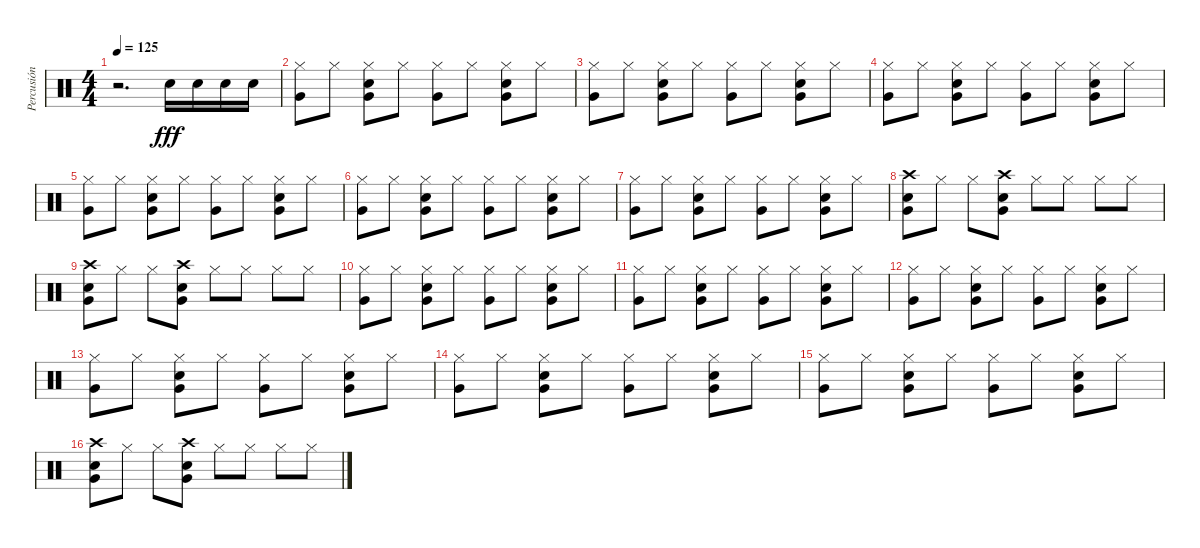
\track ("Percusión" "Percusión") {instrument percussion}
\staff {score}
\articulation defaults
\ts (4 4)
\tempo 125
\clef neutral
\ks c
r.2{d dy fff} "Snare (hit) 2".16 "Snare (hit) 2".16 "Snare (hit) 2".16 "Snare (hit) 2".16 |
("Hi-Hat (closed)" "Very Low Tom (hit)").8 "Hi-Hat (closed)".8 ("Hi-Hat (closed)" "Snare (hit) 2" "Very Low Tom (hit)").8 "Hi-Hat (closed)".8 ("Hi-Hat (closed)" "Very Low Tom (hit)").8 "Hi-Hat (closed)".8 ("Hi-Hat (closed)" "Snare (hit) 2" "Very Low Tom (hit)").8 "Hi-Hat (closed)".8 |
("Hi-Hat (closed)" "Very Low Tom (hit)").8 "Hi-Hat (closed)".8 ("Hi-Hat (closed)" "Snare (hit) 2" "Very Low Tom (hit)").8 "Hi-Hat (closed)".8 ("Hi-Hat (closed)" "Very Low Tom (hit)").8 "Hi-Hat (closed)".8 ("Hi-Hat (closed)" "Snare (hit) 2" "Very Low Tom (hit)").8 "Hi-Hat (closed)".8 |
("Hi-Hat (closed)" "Very Low Tom (hit)").8 "Hi-Hat (closed)".8 ("Hi-Hat (closed)" "Snare (hit) 2" "Very Low Tom (hit)").8 "Hi-Hat (closed)".8 ("Hi-Hat (closed)" "Very Low Tom (hit)").8 "Hi-Hat (closed)".8 ("Hi-Hat (closed)" "Snare (hit) 2" "Very Low Tom (hit)").8 "Hi-Hat (closed)".8 |
("Hi-Hat (closed)" "Very Low Tom (hit)").8 "Hi-Hat (closed)".8 ("Hi-Hat (closed)" "Snare (hit) 2" "Very Low Tom (hit)").8 "Hi-Hat (closed)".8 ("Hi-Hat (closed)" "Very Low Tom (hit)").8 "Hi-Hat (closed)".8 ("Hi-Hat (closed)" "Snare (hit) 2" "Very Low Tom (hit)").8 "Hi-Hat (closed)".8 |
("Hi-Hat (closed)" "Very Low Tom (hit)").8 "Hi-Hat (closed)".8 ("Hi-Hat (closed)" "Snare (hit) 2" "Very Low Tom (hit)").8 "Hi-Hat (closed)".8 ("Hi-Hat (closed)" "Very Low Tom (hit)").8 "Hi-Hat (closed)".8 ("Hi-Hat (closed)" "Snare (hit) 2" "Very Low Tom (hit)").8 "Hi-Hat (closed)".8 |
("Hi-Hat (closed)" "Very Low Tom (hit)").8 "Hi-Hat (closed)".8 ("Hi-Hat (closed)" "Snare (hit) 2" "Very Low Tom (hit)").8 "Hi-Hat (closed)".8 ("Hi-Hat (closed)" "Very Low Tom (hit)").8 "Hi-Hat (closed)".8 ("Hi-Hat (closed)" "Snare (hit) 2" "Very Low Tom (hit)").8 "Hi-Hat (closed)".8 |
("Crash high (hit)" "Snare (hit) 2" "Very Low Tom (hit)").8 "Hi-Hat (closed)".8 "Hi-Hat (closed)".8 ("Crash high (hit)" "Snare (hit) 2" "Very Low Tom (hit)").8 "Hi-Hat (closed)".8 "Hi-Hat (closed)".8 "Hi-Hat (closed)".8 "Hi-Hat (closed)".8 |
("Crash high (hit)" "Snare (hit) 2" "Very Low Tom (hit)").8 "Hi-Hat (closed)".8 "Hi-Hat (closed)".8 ("Crash high (hit)" "Snare (hit) 2" "Very Low Tom (hit)").8 "Hi-Hat (closed)".8 "Hi-Hat (closed)".8 "Hi-Hat (closed)".8 "Hi-Hat (closed)".8 |
("Hi-Hat (closed)" "Very Low Tom (hit)").8 "Hi-Hat (closed)".8 ("Hi-Hat (closed)" "Snare (hit) 2" "Very Low Tom (hit)").8 "Hi-Hat (closed)".8 ("Hi-Hat (closed)" "Very Low Tom (hit)").8 "Hi-Hat (closed)".8 ("Hi-Hat (closed)" "Snare (hit) 2" "Very Low Tom (hit)").8 "Hi-Hat (closed)".8 |
("Hi-Hat (closed)" "Very Low Tom (hit)").8 "Hi-Hat (closed)".8 ("Hi-Hat (closed)" "Snare (hit) 2" "Very Low Tom (hit)").8 "Hi-Hat (closed)".8 ("Hi-Hat (closed)" "Very Low Tom (hit)").8 "Hi-Hat (closed)".8 ("Hi-Hat (closed)" "Snare (hit) 2" "Very Low Tom (hit)").8 "Hi-Hat (closed)".8 |
("Hi-Hat (closed)" "Very Low Tom (hit)").8 "Hi-Hat (closed)".8 ("Hi-Hat (closed)" "Snare (hit) 2" "Very Low Tom (hit)").8 "Hi-Hat (closed)".8 ("Hi-Hat (closed)" "Very Low Tom (hit)").8 "Hi-Hat (closed)".8 ("Hi-Hat (closed)" "Snare (hit) 2" "Very Low Tom (hit)").8 "Hi-Hat (closed)".8 |
("Hi-Hat (closed)" "Very Low Tom (hit)").8 "Hi-Hat (closed)".8 ("Hi-Hat (closed)" "Snare (hit) 2" "Very Low Tom (hit)").8 "Hi-Hat (closed)".8 ("Hi-Hat (closed)" "Very Low Tom (hit)").8 "Hi-Hat (closed)".8 ("Hi-Hat (closed)" "Snare (hit) 2" "Very Low Tom (hit)").8 "Hi-Hat (closed)".8 |
("Hi-Hat (closed)" "Very Low Tom (hit)").8 "Hi-Hat (closed)".8 ("Hi-Hat (closed)" "Snare (hit) 2" "Very Low Tom (hit)").8 "Hi-Hat (closed)".8 ("Hi-Hat (closed)" "Very Low Tom (hit)").8 "Hi-Hat (closed)".8 ("Hi-Hat (closed)" "Snare (hit) 2" "Very Low Tom (hit)").8 "Hi-Hat (closed)".8 |
("Hi-Hat (closed)" "Very Low Tom (hit)").8 "Hi-Hat (closed)".8 ("Hi-Hat (closed)" "Snare (hit) 2" "Very Low Tom (hit)").8 "Hi-Hat (closed)".8 ("Hi-Hat (closed)" "Very Low Tom (hit)").8 "Hi-Hat (closed)".8 ("Hi-Hat (closed)" "Snare (hit) 2" "Very Low Tom (hit)").8 "Hi-Hat (closed)".8 |
("Crash high (hit)" "Snare (hit) 2" "Very Low Tom (hit)").8 "Hi-Hat (closed)".8 "Hi-Hat (closed)".8 ("Crash high (hit)" "Snare (hit) 2" "Very Low Tom (hit)").8 "Hi-Hat (closed)".8 "Hi-Hat (closed)".8 "Hi-Hat (closed)".8 "Hi-Hat (closed)".8
